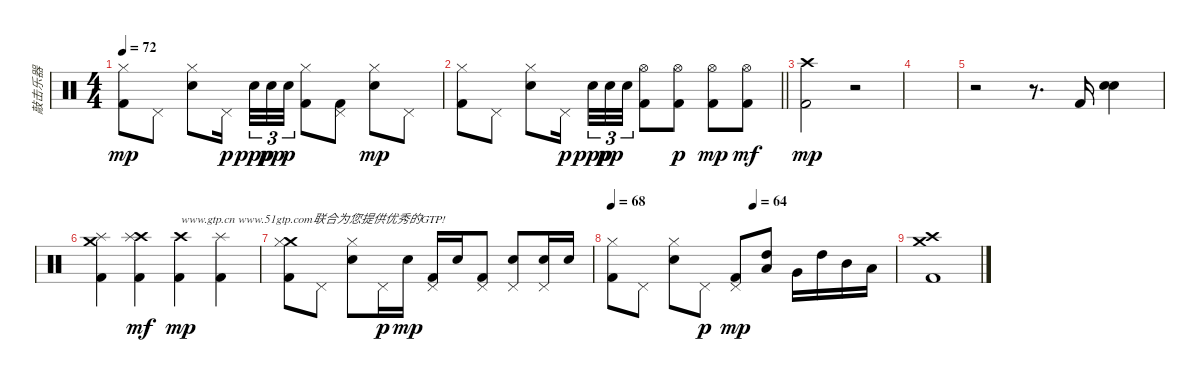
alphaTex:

\track ("敲击乐器" "敲击乐器") {instrument percussion}
\staff {score}
\articulation defaults
\ts (4 4)
\tempo 72
\clef neutral
\ks c
("Hi-Hat (closed)" "Kick (hit) 2").8{dy mp} "Pedal Hi-Hat (hit)".8 ("Hi-Hat (closed)" "Electric Snare (hit)").8 "Pedal Hi-Hat (hit)".16{dy p beam splitsecondary} "Electric Snare (hit)".32{tu (3 2) dy ppp} "Electric Snare (hit)".32{tu (3 2) dy pp} "Electric Snare (hit)".32{tu (3 2) dy p} ("Hi-Hat (closed)" "Kick (hit) 2").8 ("Pedal Hi-Hat (hit)" "Kick (hit) 2").8 ("Hi-Hat (closed)" "Electric Snare (hit)").8{dy mp} "Pedal Hi-Hat (hit)".8 |
\barLineRight lightlight
("Hi-Hat (closed)" "Kick (hit) 2").8 "Pedal Hi-Hat (hit)".8 ("Hi-Hat (closed)" "Electric Snare (hit)").8 "Pedal Hi-Hat (hit)".16{dy p beam splitsecondary} "Electric Snare (hit)".32{tu (3 2) dy ppp} "Electric Snare (hit)".32{tu (3 2) dy pp} "Electric Snare (hit)".32{tu (3 2)} ("Hi-Hat (open)" "Kick (hit) 2").8 ("Hi-Hat (open)" "Kick (hit) 2").8{dy p} ("Hi-Hat (open)" "Kick (hit) 2").8{dy mp} ("Hi-Hat (open)" "Kick (hit) 2").8{dy mf} |
("Crash high (hit)" "Kick (hit) 2").2{dy mp} r.2 |
|
r.2 r.8{d} "Kick (hit) 2".16 ("Electric Snare (hit)" "Snare (hit) 2").4 |
("Crash medium (hit)" "Splash (hit)" "Kick (hit) 2").4 ("Crash high (hit)" "Splash (hit)" "Kick (hit) 2").4{dy mf} ("Crash high (hit)" "Kick (hit) 2").4{txt "www.gtp.cn www.51gtp.com联合为您提供优秀的GTP!" dy mp} ("Splash (hit)" "Kick (hit) 2").4 |
("Crash medium (hit)" "Hi-Hat (closed)" "Kick (hit) 2").8 "Pedal Hi-Hat (hit)".8 ("Hi-Hat (closed)" "Electric Snare (hit)").8 "Pedal Hi-Hat (hit)".16{dy p} "Electric Snare (hit)".16{dy mp} ("Pedal Hi-Hat (hit)" "Kick (hit) 2").16 "Electric Snare (hit)".16 ("Pedal Hi-Hat (hit)" "Kick (hit) 2").8 ("Pedal Hi-Hat (hit)" "Electric Snare (hit)").8 ("Pedal Hi-Hat (hit)" "Electric Snare (hit)").16 "Electric Snare (hit)".16 |
\tempo 68
\tempo (64 0.5)
("Hi-Hat (closed)" "Kick (hit) 2").8 "Pedal Hi-Hat (hit)".8 ("Hi-Hat (closed)" "Electric Snare (hit)").8 "Pedal Hi-Hat (hit)".8{dy p} ("Pedal Hi-Hat (hit)" "Kick (hit) 2").8{dy mp} ("High Tom (hit)" "Low Tom (hit)").8 "Very Low Tom (hit)".16 "High Tom (hit)".16 "Mid Tom (hit)".16 "Low Tom (hit)".16 |
("Crash medium (hit)" "Crash high (hit)" "Kick (hit) 2").1
